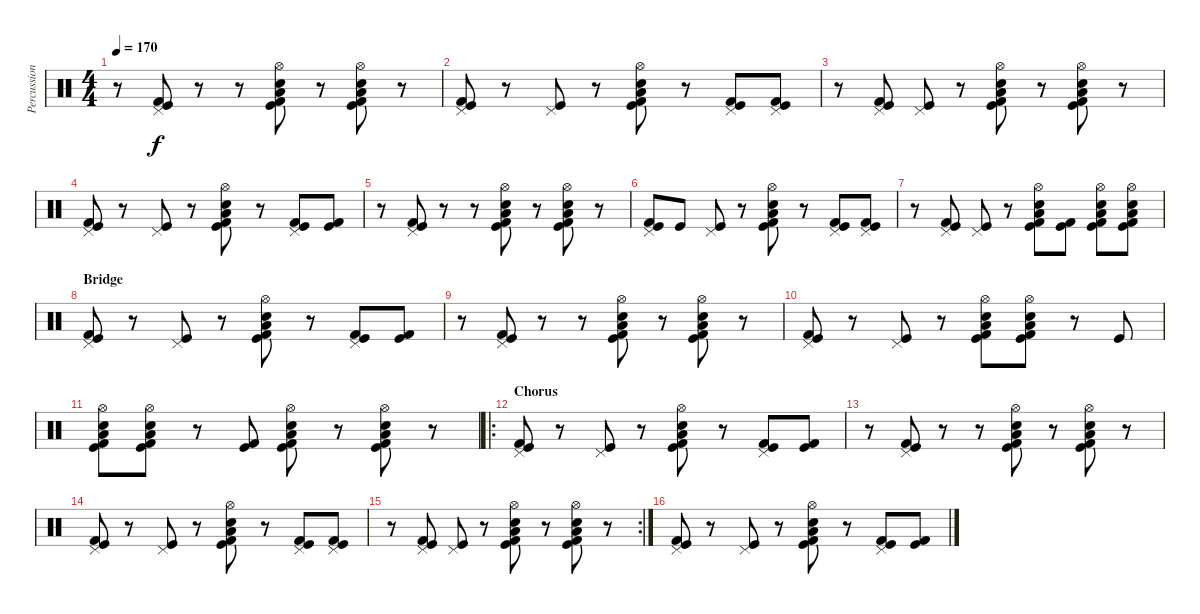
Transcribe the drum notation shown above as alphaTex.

\track ("Percussion" "Percussion") {instrument percussion}
\staff {score}
\articulation defaults
\ts (4 4)
\tempo 170
\clef neutral
\ks c
r.8{dy f} ("Kick (hit)" "Kick (hit) 2" "Pedal Hi-Hat (hit)").8 r.8 r.8 ("Kick (hit) 2" "Snare (hit) 2" "Kick (hit)" "Low Floor Tom (hit)" "Hi-Hat (open)").8 r.8 ("Kick (hit) 2" "Snare (hit) 2" "Kick (hit)" "Low Floor Tom (hit)" "Hi-Hat (open)").8 r.8 |
("Kick (hit)" "Kick (hit) 2" "Pedal Hi-Hat (hit)").8 r.8 ("Kick (hit)" "Pedal Hi-Hat (hit)").8 r.8 ("Kick (hit) 2" "Snare (hit) 2" "Kick (hit)" "Low Floor Tom (hit)" "Hi-Hat (open)").8 r.8 ("Kick (hit)" "Kick (hit) 2" "Pedal Hi-Hat (hit)").8 ("Kick (hit)" "Kick (hit) 2" "Pedal Hi-Hat (hit)").8 |
r.8 ("Kick (hit)" "Kick (hit) 2" "Pedal Hi-Hat (hit)").8 ("Kick (hit)" "Pedal Hi-Hat (hit)").8 r.8 ("Kick (hit) 2" "Snare (hit) 2" "Kick (hit)" "Low Floor Tom (hit)" "Hi-Hat (open)").8 r.8 ("Kick (hit) 2" "Snare (hit) 2" "Kick (hit)" "Low Floor Tom (hit)" "Hi-Hat (open)").8 r.8 |
("Kick (hit)" "Kick (hit) 2" "Pedal Hi-Hat (hit)").8 r.8 ("Kick (hit)" "Pedal Hi-Hat (hit)").8 r.8 ("Kick (hit) 2" "Snare (hit) 2" "Kick (hit)" "Low Floor Tom (hit)" "Hi-Hat (open)").8 r.8 ("Kick (hit)" "Kick (hit) 2" "Pedal Hi-Hat (hit)").8 ("Kick (hit)" "Kick (hit) 2").8 |
r.8 ("Kick (hit)" "Kick (hit) 2" "Pedal Hi-Hat (hit)").8 r.8 r.8 ("Kick (hit) 2" "Snare (hit) 2" "Kick (hit)" "Low Floor Tom (hit)" "Hi-Hat (open)").8 r.8 ("Kick (hit) 2" "Snare (hit) 2" "Kick (hit)" "Low Floor Tom (hit)" "Hi-Hat (open)").8 r.8 |
("Kick (hit)" "Kick (hit) 2" "Pedal Hi-Hat (hit)").8 "Kick (hit)".8 ("Kick (hit)" "Pedal Hi-Hat (hit)").8 r.8 ("Kick (hit) 2" "Snare (hit) 2" "Kick (hit)" "Low Floor Tom (hit)" "Hi-Hat (open)").8 r.8 ("Kick (hit)" "Kick (hit) 2" "Pedal Hi-Hat (hit)").8 ("Kick (hit)" "Kick (hit) 2" "Pedal Hi-Hat (hit)").8 |
r.8 ("Kick (hit)" "Kick (hit) 2" "Pedal Hi-Hat (hit)").8 ("Kick (hit)" "Pedal Hi-Hat (hit)").8 r.8 ("Kick (hit) 2" "Snare (hit) 2" "Kick (hit)" "Low Floor Tom (hit)" "Hi-Hat (open)").8 ("Kick (hit) 2" "Kick (hit)").8 ("Kick (hit) 2" "Snare (hit) 2" "Kick (hit)" "Low Floor Tom (hit)" "Hi-Hat (open)").8 ("Kick (hit) 2" "Snare (hit) 2" "Kick (hit)" "Low Floor Tom (hit)" "Hi-Hat (open)").8 |
\section ("" "Bridge")
("Kick (hit)" "Kick (hit) 2" "Pedal Hi-Hat (hit)").8 r.8 ("Kick (hit)" "Pedal Hi-Hat (hit)").8 r.8 ("Kick (hit) 2" "Snare (hit) 2" "Kick (hit)" "Low Floor Tom (hit)" "Hi-Hat (open)").8 r.8 ("Kick (hit)" "Kick (hit) 2" "Pedal Hi-Hat (hit)").8 ("Kick (hit)" "Kick (hit) 2").8 |
r.8 ("Kick (hit)" "Kick (hit) 2" "Pedal Hi-Hat (hit)").8 r.8 r.8 ("Kick (hit) 2" "Snare (hit) 2" "Kick (hit)" "Low Floor Tom (hit)" "Hi-Hat (open)").8 r.8 ("Kick (hit) 2" "Snare (hit) 2" "Kick (hit)" "Low Floor Tom (hit)" "Hi-Hat (open)").8 r.8 |
("Kick (hit)" "Kick (hit) 2" "Pedal Hi-Hat (hit)").8 r.8 ("Kick (hit)" "Pedal Hi-Hat (hit)").8 r.8 ("Kick (hit) 2" "Snare (hit) 2" "Kick (hit)" "Low Floor Tom (hit)" "Hi-Hat (open)").8 ("Kick (hit) 2" "Snare (hit) 2" "Kick (hit)" "Low Floor Tom (hit)" "Hi-Hat (open)").8 r.8 "Kick (hit)".8 |
("Kick (hit) 2" "Snare (hit) 2" "Kick (hit)" "Low Floor Tom (hit)" "Hi-Hat (open)").8 ("Kick (hit) 2" "Snare (hit) 2" "Kick (hit)" "Low Floor Tom (hit)" "Hi-Hat (open)").8 r.8 ("Kick (hit) 2" "Kick (hit)").8 ("Kick (hit) 2" "Snare (hit) 2" "Kick (hit)" "Low Floor Tom (hit)" "Hi-Hat (open)").8 r.8 ("Kick (hit) 2" "Snare (hit) 2" "Kick (hit)" "Low Floor Tom (hit)" "Hi-Hat (open)").8 r.8 |
\ro
\section ("" "Chorus")
("Kick (hit)" "Kick (hit) 2" "Pedal Hi-Hat (hit)").8{volume 14} r.8 ("Kick (hit)" "Pedal Hi-Hat (hit)").8 r.8 ("Kick (hit) 2" "Snare (hit) 2" "Kick (hit)" "Low Floor Tom (hit)" "Hi-Hat (open)").8 r.8 ("Kick (hit)" "Kick (hit) 2" "Pedal Hi-Hat (hit)").8 ("Kick (hit)" "Kick (hit) 2").8 |
r.8 ("Kick (hit)" "Kick (hit) 2" "Pedal Hi-Hat (hit)").8 r.8 r.8 ("Kick (hit) 2" "Snare (hit) 2" "Kick (hit)" "Low Floor Tom (hit)" "Hi-Hat (open)").8 r.8 ("Kick (hit) 2" "Snare (hit) 2" "Kick (hit)" "Low Floor Tom (hit)" "Hi-Hat (open)").8 r.8 |
("Kick (hit)" "Kick (hit) 2" "Pedal Hi-Hat (hit)").8 r.8 ("Kick (hit)" "Pedal Hi-Hat (hit)").8 r.8 ("Kick (hit) 2" "Snare (hit) 2" "Kick (hit)" "Low Floor Tom (hit)" "Hi-Hat (open)").8 r.8 ("Kick (hit)" "Kick (hit) 2" "Pedal Hi-Hat (hit)").8 ("Kick (hit)" "Kick (hit) 2" "Pedal Hi-Hat (hit)").8 |
\rc 2
r.8 ("Kick (hit)" "Kick (hit) 2" "Pedal Hi-Hat (hit)").8 ("Kick (hit)" "Pedal Hi-Hat (hit)").8 r.8 ("Kick (hit) 2" "Snare (hit) 2" "Kick (hit)" "Low Floor Tom (hit)" "Hi-Hat (open)").8 r.8 ("Kick (hit) 2" "Snare (hit) 2" "Kick (hit)" "Low Floor Tom (hit)" "Hi-Hat (open)").8 r.8 |
("Kick (hit)" "Kick (hit) 2" "Pedal Hi-Hat (hit)").8 r.8 ("Kick (hit)" "Pedal Hi-Hat (hit)").8 r.8 ("Kick (hit) 2" "Snare (hit) 2" "Kick (hit)" "Low Floor Tom (hit)" "Hi-Hat (open)").8 r.8 ("Kick (hit)" "Kick (hit) 2" "Pedal Hi-Hat (hit)").8 ("Kick (hit)" "Kick (hit) 2").8
